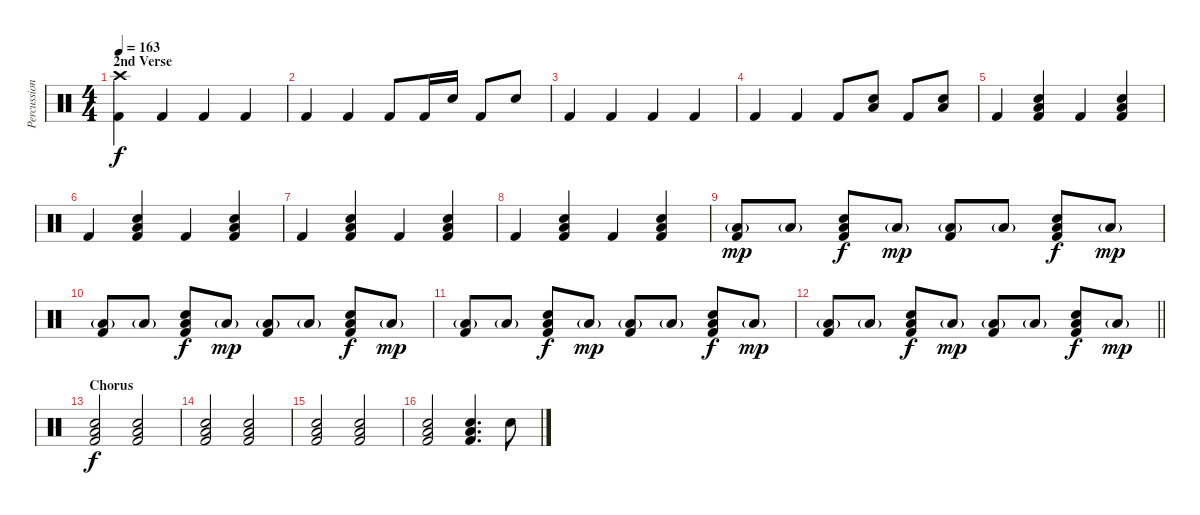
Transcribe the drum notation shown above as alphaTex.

\track ("Percussion" "Percussion") {instrument percussion}
\staff {score}
\articulation defaults
\ts (4 4)
\section ("" "2nd Verse")
\tempo 163
\clef neutral
\ks c
("Crash high (hit)" "Kick (hit) 2").4{dy f} "Kick (hit) 2".4 "Kick (hit) 2".4 "Kick (hit) 2".4 |
"Kick (hit) 2".4 "Kick (hit) 2".4 "Kick (hit) 2".8 "Kick (hit) 2".16 "Snare (hit) 2".16 "Kick (hit) 2".8 "Snare (hit) 2".8 |
"Kick (hit) 2".4 "Kick (hit) 2".4 "Kick (hit) 2".4 "Kick (hit) 2".4 |
"Kick (hit) 2".4 "Kick (hit) 2".4 "Kick (hit) 2".8 ("Low Tom (hit)" "Snare (hit) 2").8 "Kick (hit) 2".8 ("Low Tom (hit)" "Snare (hit) 2").8 |
"Kick (hit) 2".4 ("Low Tom (hit)" "Snare (hit) 2" "Kick (hit) 2").4 "Kick (hit) 2".4 ("Low Tom (hit)" "Snare (hit) 2" "Kick (hit) 2").4 |
"Kick (hit) 2".4 ("Low Tom (hit)" "Snare (hit) 2" "Kick (hit) 2").4 "Kick (hit) 2".4 ("Low Tom (hit)" "Snare (hit) 2" "Kick (hit) 2").4 |
"Kick (hit) 2".4 ("Low Tom (hit)" "Snare (hit) 2" "Kick (hit) 2").4 "Kick (hit) 2".4 ("Low Tom (hit)" "Snare (hit) 2" "Kick (hit) 2").4 |
"Kick (hit) 2".4 ("Low Tom (hit)" "Snare (hit) 2" "Kick (hit) 2").4 "Kick (hit) 2".4 ("Low Tom (hit)" "Snare (hit) 2" "Kick (hit) 2").4 |
("Low Tom (hit)"{g} "Kick (hit) 2").8{dy mp} "Low Tom (hit)"{g}.8 ("Low Tom (hit)" "Snare (hit) 2" "Kick (hit) 2").8{dy f} "Low Tom (hit)"{g}.8{dy mp} ("Low Tom (hit)"{g} "Kick (hit) 2").8 "Low Tom (hit)"{g}.8 ("Low Tom (hit)" "Snare (hit) 2" "Kick (hit) 2").8{dy f} "Low Tom (hit)"{g}.8{dy mp} |
("Low Tom (hit)"{g} "Kick (hit) 2").8 "Low Tom (hit)"{g}.8 ("Low Tom (hit)" "Snare (hit) 2" "Kick (hit) 2").8{dy f} "Low Tom (hit)"{g}.8{dy mp} ("Low Tom (hit)"{g} "Kick (hit) 2").8 "Low Tom (hit)"{g}.8 ("Low Tom (hit)" "Snare (hit) 2" "Kick (hit) 2").8{dy f} "Low Tom (hit)"{g}.8{dy mp} |
("Low Tom (hit)"{g} "Kick (hit) 2").8 "Low Tom (hit)"{g}.8 ("Low Tom (hit)" "Snare (hit) 2" "Kick (hit) 2").8{dy f} "Low Tom (hit)"{g}.8{dy mp} ("Low Tom (hit)"{g} "Kick (hit) 2").8 "Low Tom (hit)"{g}.8 ("Low Tom (hit)" "Snare (hit) 2" "Kick (hit) 2").8{dy f} "Low Tom (hit)"{g}.8{dy mp} |
\barLineRight lightlight
("Low Tom (hit)"{g} "Kick (hit) 2").8 "Low Tom (hit)"{g}.8 ("Low Tom (hit)" "Snare (hit) 2" "Kick (hit) 2").8{dy f} "Low Tom (hit)"{g}.8{dy mp} ("Low Tom (hit)"{g} "Kick (hit) 2").8 "Low Tom (hit)"{g}.8 ("Low Tom (hit)" "Snare (hit) 2" "Kick (hit) 2").8{dy f} "Low Tom (hit)"{g}.8{dy mp} |
\section ("" "Chorus")
("Low Tom (hit)" "Snare (hit) 2" "Kick (hit) 2").2{dy f} ("Low Tom (hit)" "Snare (hit) 2" "Kick (hit) 2").2 |
("Low Tom (hit)" "Snare (hit) 2" "Kick (hit) 2").2 ("Low Tom (hit)" "Snare (hit) 2" "Kick (hit) 2").2 |
("Low Tom (hit)" "Snare (hit) 2" "Kick (hit) 2").2 ("Low Tom (hit)" "Snare (hit) 2" "Kick (hit) 2").2 |
("Low Tom (hit)" "Snare (hit) 2" "Kick (hit) 2").2 ("Low Tom (hit)" "Snare (hit) 2" "Kick (hit) 2").4{d} "Snare (hit) 2".8
